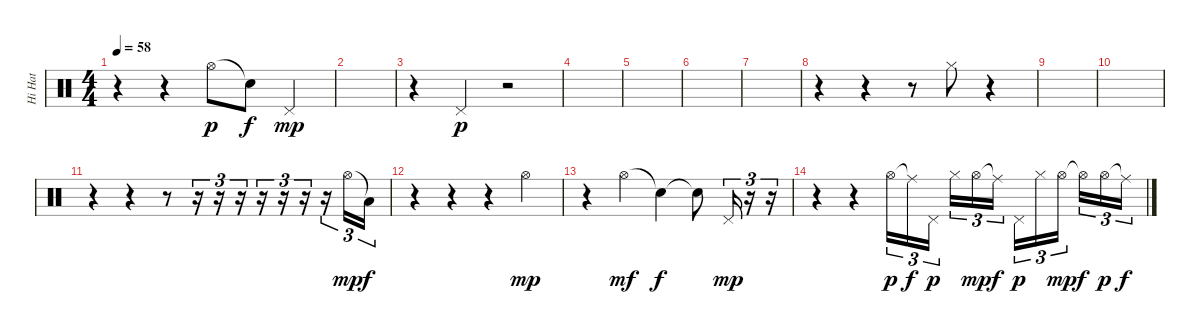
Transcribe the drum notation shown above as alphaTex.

\track ("Hi Hat" "Hi Hat") {instrument percussion}
\staff {score}
\articulation defaults
\ts (4 4)
\tempo 58
\clef neutral
\ks c
r.4{dy p} r.4 "Hi-Hat (open)".8 "Snare (hit)"{t}.8{dy f} "Pedal Hi-Hat (hit)".4{dy mp} |
|
r.4 "Pedal Hi-Hat (hit)".4{dy p} r.2 |
|
|
|
|
r.4 r.4 r.8 "Hi-Hat (closed)".8 r.4 |
|
|
r.4 r.4 r.8 r.16{tu (3 2)} r.16{tu (3 2)} r.16{tu (3 2)} r.16{tu (3 2)} r.16{tu (3 2)} r.16{tu (3 2)} r.16{tu (3 2)} "Hi-Hat (open)".16{tu (3 2) dy mp} "Low Tom (hit)"{t}.16{tu (3 2) dy f} |
r.4 r.4 r.4 "Hi-Hat (open)".4{dy mp} |
r.4 "Hi-Hat (open)".4{dy mf} "Snare (hit)"{t}.4{dy f} "Snare (hit)"{t}.8 "Pedal Hi-Hat (hit)".16{tu (3 2) dy mp} r.16{tu (3 2)} r.16{tu (3 2)} |
r.4 r.4 "Hi-Hat (open)".16{tu (3 2) dy p} "Ride (middle)"{t}.16{tu (3 2) dy f} "Pedal Hi-Hat (hit)".16{tu (3 2) dy p} "Hi-Hat (closed)".16{tu (3 2)} "Hi-Hat (open)".16{tu (3 2) dy mp} "Ride (middle)"{t}.16{tu (3 2) dy f} "Pedal Hi-Hat (hit)".16{tu (3 2) dy p} "Hi-Hat (closed)".16{tu (3 2)} "Hi-Hat (open)".16{tu (3 2) dy mp} "Hi-Hat (open)"{t}.16{tu (3 2) dy f} "Hi-Hat (open)".16{tu (3 2) dy p} "Ride (middle)"{t}.16{tu (3 2) dy f}
